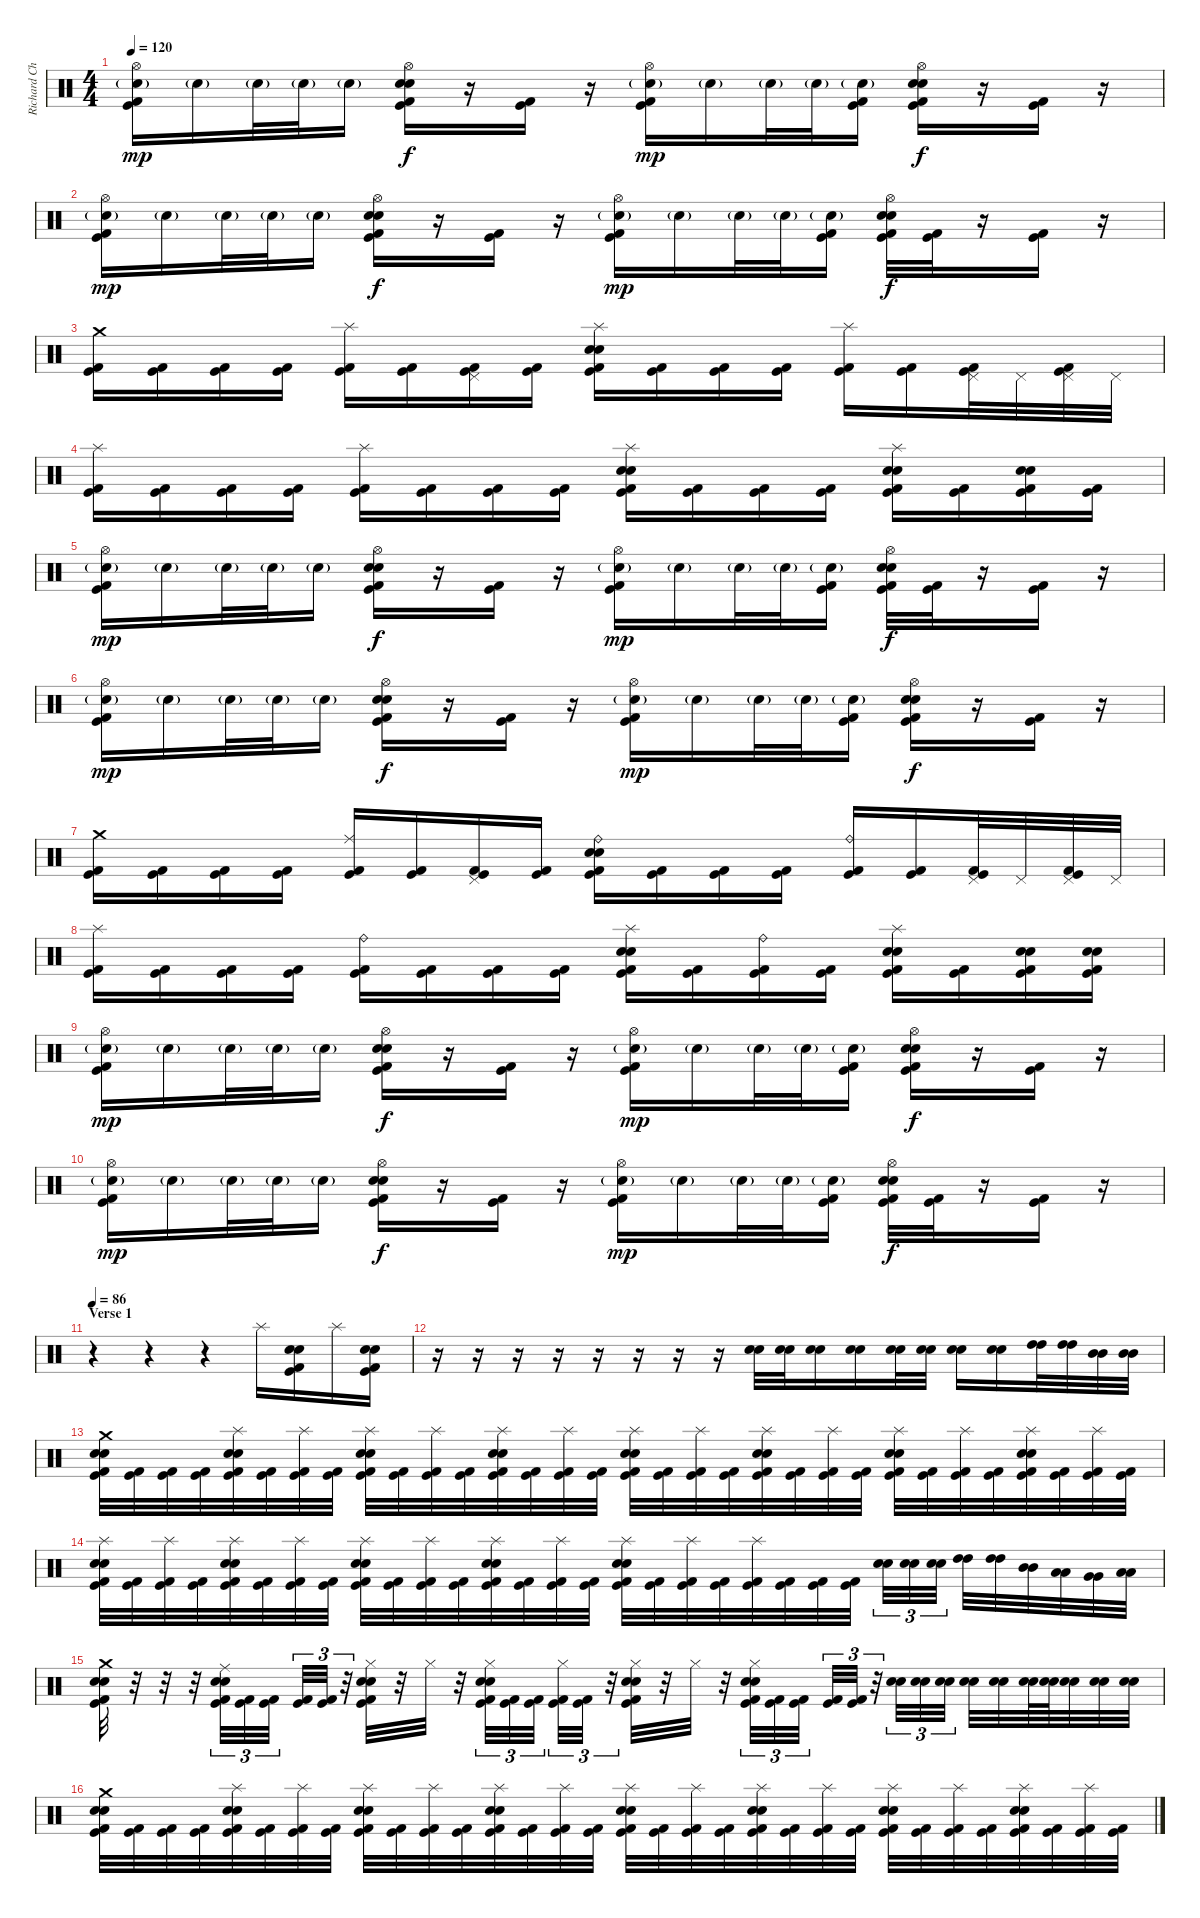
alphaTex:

\track ("Richard Christy" "Richard Ch") {instrument percussion}
\staff {score}
\articulation defaults
\ts (4 4)
\tempo 120
\clef neutral
\ks c
("Hi-Hat (open)" "Snare (hit) 2"{g} "Kick (hit)" "Kick (hit) 2").16{dy mp} "Snare (hit) 2"{g}.16 "Snare (hit) 2"{g}.32 "Snare (hit) 2"{g}.32 "Snare (hit) 2"{g}.16 ("Snare (hit) 2" "Electric Snare (hit)" "Hi-Hat (open)" "Kick (hit)" "Kick (hit) 2").16{dy f} r.16 ("Kick (hit)" "Kick (hit) 2").16 r.16 ("Hi-Hat (open)" "Snare (hit) 2"{g} "Kick (hit)" "Kick (hit) 2").16{dy mp} "Snare (hit) 2"{g}.16 "Snare (hit) 2"{g}.32 "Snare (hit) 2"{g}.32 ("Snare (hit) 2"{g} "Kick (hit)" "Kick (hit) 2").16 ("Hi-Hat (open)" "Snare (hit) 2" "Electric Snare (hit)" "Kick (hit)" "Kick (hit) 2").16{dy f} r.16 ("Kick (hit)" "Kick (hit) 2").16 r.16 |
("Hi-Hat (open)" "Snare (hit) 2"{g} "Kick (hit)" "Kick (hit) 2").16{dy mp} "Snare (hit) 2"{g}.16 "Snare (hit) 2"{g}.32 "Snare (hit) 2"{g}.32 "Snare (hit) 2"{g}.16 ("Snare (hit) 2" "Electric Snare (hit)" "Hi-Hat (open)" "Kick (hit)" "Kick (hit) 2").16{dy f} r.16 ("Kick (hit)" "Kick (hit) 2").16 r.16 ("Hi-Hat (open)" "Snare (hit) 2"{g} "Kick (hit)" "Kick (hit) 2").16{dy mp} "Snare (hit) 2"{g}.16 "Snare (hit) 2"{g}.32 "Snare (hit) 2"{g}.32 ("Snare (hit) 2"{g} "Kick (hit)" "Kick (hit) 2").16 ("Hi-Hat (open)" "Snare (hit) 2" "Electric Snare (hit)" "Kick (hit)" "Kick (hit) 2").32{dy f} ("Kick (hit)" "Kick (hit) 2").32 r.16 ("Kick (hit)" "Kick (hit) 2").16 r.16 |
("Crash medium (hit)" "Kick (hit)" "Kick (hit) 2").16 ("Kick (hit)" "Kick (hit) 2").16 ("Kick (hit)" "Kick (hit) 2").16 ("Kick (hit)" "Kick (hit) 2").16 ("Splash (hit)" "Kick (hit)" "Kick (hit) 2").16 ("Kick (hit)" "Kick (hit) 2").16 ("Pedal Hi-Hat (hit)" "Kick (hit)" "Kick (hit) 2").16 ("Kick (hit)" "Kick (hit) 2").16 ("Splash (hit)" "Snare (hit) 2" "Electric Snare (hit)" "Kick (hit)" "Kick (hit) 2").16 ("Kick (hit)" "Kick (hit) 2").16 ("Kick (hit)" "Kick (hit) 2").16 ("Kick (hit)" "Kick (hit) 2").16 ("Splash (hit)" "Kick (hit)" "Kick (hit) 2").16 ("Kick (hit)" "Kick (hit) 2").16 ("Pedal Hi-Hat (hit)" "Kick (hit)" "Kick (hit) 2").32 "Pedal Hi-Hat (hit)".32 ("Pedal Hi-Hat (hit)" "Kick (hit)" "Kick (hit) 2").32 "Pedal Hi-Hat (hit)".32 |
("Splash (hit)" "Kick (hit)" "Kick (hit) 2").16 ("Kick (hit)" "Kick (hit) 2").16 ("Kick (hit)" "Kick (hit) 2").16 ("Kick (hit)" "Kick (hit) 2").16 ("Splash (hit)" "Kick (hit)" "Kick (hit) 2").16 ("Kick (hit)" "Kick (hit) 2").16 ("Kick (hit)" "Kick (hit) 2").16 ("Kick (hit)" "Kick (hit) 2").16 ("Splash (hit)" "Snare (hit) 2" "Electric Snare (hit)" "Kick (hit)" "Kick (hit) 2").16 ("Kick (hit)" "Kick (hit) 2").16 ("Kick (hit)" "Kick (hit) 2").16 ("Kick (hit)" "Kick (hit) 2").16 ("Splash (hit)" "Snare (hit) 2" "Electric Snare (hit)" "Kick (hit)" "Kick (hit) 2").16 ("Kick (hit)" "Kick (hit) 2").16 ("Snare (hit) 2" "Electric Snare (hit)" "Kick (hit)" "Kick (hit) 2").16 ("Kick (hit)" "Kick (hit) 2").16 |
("Hi-Hat (open)" "Snare (hit) 2"{g} "Kick (hit)" "Kick (hit) 2").16{dy mp} "Snare (hit) 2"{g}.16 "Snare (hit) 2"{g}.32 "Snare (hit) 2"{g}.32 "Snare (hit) 2"{g}.16 ("Snare (hit) 2" "Electric Snare (hit)" "Hi-Hat (open)" "Kick (hit)" "Kick (hit) 2").16{dy f} r.16 ("Kick (hit)" "Kick (hit) 2").16 r.16 ("Hi-Hat (open)" "Snare (hit) 2"{g} "Kick (hit)" "Kick (hit) 2").16{dy mp} "Snare (hit) 2"{g}.16 "Snare (hit) 2"{g}.32 "Snare (hit) 2"{g}.32 ("Snare (hit) 2"{g} "Kick (hit)" "Kick (hit) 2").16 ("Hi-Hat (open)" "Snare (hit) 2" "Electric Snare (hit)" "Kick (hit)" "Kick (hit) 2").32{dy f} ("Kick (hit)" "Kick (hit) 2").32 r.16 ("Kick (hit)" "Kick (hit) 2").16 r.16 |
("Hi-Hat (open)" "Snare (hit) 2"{g} "Kick (hit)" "Kick (hit) 2").16{dy mp} "Snare (hit) 2"{g}.16 "Snare (hit) 2"{g}.32 "Snare (hit) 2"{g}.32 "Snare (hit) 2"{g}.16 ("Snare (hit) 2" "Electric Snare (hit)" "Hi-Hat (open)" "Kick (hit)" "Kick (hit) 2").16{dy f} r.16 ("Kick (hit)" "Kick (hit) 2").16 r.16 ("Hi-Hat (open)" "Snare (hit) 2"{g} "Kick (hit)" "Kick (hit) 2").16{dy mp} "Snare (hit) 2"{g}.16 "Snare (hit) 2"{g}.32 "Snare (hit) 2"{g}.32 ("Snare (hit) 2"{g} "Kick (hit)" "Kick (hit) 2").16 ("Hi-Hat (open)" "Snare (hit) 2" "Electric Snare (hit)" "Kick (hit)" "Kick (hit) 2").16{dy f} r.16 ("Kick (hit)" "Kick (hit) 2").16 r.16 |
("Crash medium (hit)" "Kick (hit)" "Kick (hit) 2").16 ("Kick (hit)" "Kick (hit) 2").16 ("Kick (hit)" "Kick (hit) 2").16 ("Kick (hit)" "Kick (hit) 2").16 ("Ride (middle)" "Kick (hit)" "Kick (hit) 2").16 ("Kick (hit)" "Kick (hit) 2").16 ("Pedal Hi-Hat (hit)" "Kick (hit)" "Kick (hit) 2").16 ("Kick (hit)" "Kick (hit) 2").16 ("Ride (bell)" "Snare (hit) 2" "Electric Snare (hit)" "Kick (hit)" "Kick (hit) 2").16 ("Kick (hit)" "Kick (hit) 2").16 ("Kick (hit)" "Kick (hit) 2").16 ("Kick (hit)" "Kick (hit) 2").16 ("Ride (bell)" "Kick (hit)" "Kick (hit) 2").16 ("Kick (hit)" "Kick (hit) 2").16 ("Pedal Hi-Hat (hit)" "Kick (hit)" "Kick (hit) 2").32 "Pedal Hi-Hat (hit)".32 ("Pedal Hi-Hat (hit)" "Kick (hit)" "Kick (hit) 2").32 "Pedal Hi-Hat (hit)".32 |
("Splash (hit)" "Kick (hit)" "Kick (hit) 2").16 ("Kick (hit)" "Kick (hit) 2").16 ("Kick (hit)" "Kick (hit) 2").16 ("Kick (hit)" "Kick (hit) 2").16 ("Ride (bell)" "Kick (hit)" "Kick (hit) 2").16 ("Kick (hit)" "Kick (hit) 2").16 ("Kick (hit)" "Kick (hit) 2").16 ("Kick (hit)" "Kick (hit) 2").16 ("Splash (hit)" "Snare (hit) 2" "Electric Snare (hit)" "Kick (hit)" "Kick (hit) 2").16 ("Kick (hit)" "Kick (hit) 2").16 ("Ride (bell)" "Kick (hit)" "Kick (hit) 2").16 ("Kick (hit)" "Kick (hit) 2").16 ("Splash (hit)" "Snare (hit) 2" "Electric Snare (hit)" "Kick (hit)" "Kick (hit) 2").16 ("Kick (hit)" "Kick (hit) 2").16 ("Snare (hit) 2" "Electric Snare (hit)" "Kick (hit)" "Kick (hit) 2").16 ("Snare (hit) 2" "Electric Snare (hit)" "Kick (hit)" "Kick (hit) 2").16 |
("Hi-Hat (open)" "Snare (hit) 2"{g} "Kick (hit)" "Kick (hit) 2").16{dy mp} "Snare (hit) 2"{g}.16 "Snare (hit) 2"{g}.32 "Snare (hit) 2"{g}.32 "Snare (hit) 2"{g}.16 ("Snare (hit) 2" "Electric Snare (hit)" "Hi-Hat (open)" "Kick (hit)" "Kick (hit) 2").16{dy f} r.16 ("Kick (hit)" "Kick (hit) 2").16 r.16 ("Hi-Hat (open)" "Snare (hit) 2"{g} "Kick (hit)" "Kick (hit) 2").16{dy mp} "Snare (hit) 2"{g}.16 "Snare (hit) 2"{g}.32 "Snare (hit) 2"{g}.32 ("Snare (hit) 2"{g} "Kick (hit)" "Kick (hit) 2").16 ("Hi-Hat (open)" "Snare (hit) 2" "Electric Snare (hit)" "Kick (hit)" "Kick (hit) 2").16{dy f} r.16 ("Kick (hit)" "Kick (hit) 2").16 r.16 |
("Hi-Hat (open)" "Snare (hit) 2"{g} "Kick (hit)" "Kick (hit) 2").16{dy mp} "Snare (hit) 2"{g}.16 "Snare (hit) 2"{g}.32 "Snare (hit) 2"{g}.32 "Snare (hit) 2"{g}.16 ("Snare (hit) 2" "Electric Snare (hit)" "Hi-Hat (open)" "Kick (hit)" "Kick (hit) 2").16{dy f} r.16 ("Kick (hit)" "Kick (hit) 2").16 r.16 ("Hi-Hat (open)" "Snare (hit) 2"{g} "Kick (hit)" "Kick (hit) 2").16{dy mp} "Snare (hit) 2"{g}.16 "Snare (hit) 2"{g}.32 "Snare (hit) 2"{g}.32 ("Snare (hit) 2"{g} "Kick (hit)" "Kick (hit) 2").16 ("Hi-Hat (open)" "Snare (hit) 2" "Electric Snare (hit)" "Kick (hit)" "Kick (hit) 2").32{dy f} ("Kick (hit)" "Kick (hit) 2").32 r.16 ("Kick (hit)" "Kick (hit) 2").16 r.16 |
\section ("" "Verse 1")
\tempo 86
r.4 r.4 r.4 "Splash (hit)".16 ("Kick (hit)" "Snare (hit) 2" "Electric Snare (hit)" "Kick (hit) 2").16 "Splash (hit)".16 ("Kick (hit)" "Kick (hit) 2" "Electric Snare (hit)" "Snare (hit) 2").16 |
r.16 r.16 r.16 r.16 r.16 r.16 r.16 r.16 ("Snare (hit) 2" "Electric Snare (hit)").32 ("Snare (hit) 2" "Electric Snare (hit)").32 ("Snare (hit) 2" "Electric Snare (hit)").16 ("Snare (hit) 2" "Electric Snare (hit)").16 ("Snare (hit) 2" "Electric Snare (hit)").32 ("Snare (hit) 2" "Electric Snare (hit)").32 ("Snare (hit) 2" "Electric Snare (hit)").16 ("Snare (hit) 2" "Electric Snare (hit)").16 ("High Tom (hit)" "High Tom (hit)").32 ("High Tom (hit)" "High Tom (hit)").32 ("Mid Tom (hit)" "Mid Tom (hit)").32 ("Mid Tom (hit)" "Mid Tom (hit)").32 |
("Crash medium (hit)" "Electric Snare (hit)" "Snare (hit) 2" "Kick (hit)" "Kick (hit) 2").32 ("Kick (hit)" "Kick (hit) 2").32 ("Kick (hit)" "Kick (hit) 2").32 ("Kick (hit)" "Kick (hit) 2").32 ("Splash (hit)" "Electric Snare (hit)" "Snare (hit) 2" "Kick (hit)" "Kick (hit) 2").32 ("Kick (hit)" "Kick (hit) 2").32 ("Splash (hit)" "Kick (hit)" "Kick (hit) 2").32 ("Kick (hit)" "Kick (hit) 2").32 ("Splash (hit)" "Electric Snare (hit)" "Snare (hit) 2" "Kick (hit)" "Kick (hit) 2").32 ("Kick (hit)" "Kick (hit) 2").32 ("Splash (hit)" "Kick (hit)" "Kick (hit) 2").32 ("Kick (hit)" "Kick (hit) 2").32 ("Splash (hit)" "Electric Snare (hit)" "Snare (hit) 2" "Kick (hit)" "Kick (hit) 2").32 ("Kick (hit)" "Kick (hit) 2").32 ("Splash (hit)" "Kick (hit)" "Kick (hit) 2").32 ("Kick (hit)" "Kick (hit) 2").32 ("Splash (hit)" "Electric Snare (hit)" "Snare (hit) 2" "Kick (hit)" "Kick (hit) 2").32 ("Kick (hit)" "Kick (hit) 2").32 ("Splash (hit)" "Kick (hit)" "Kick (hit) 2").32 ("Kick (hit)" "Kick (hit) 2").32 ("Splash (hit)" "Electric Snare (hit)" "Snare (hit) 2" "Kick (hit)" "Kick (hit) 2").32 ("Kick (hit)" "Kick (hit) 2").32 ("Splash (hit)" "Kick (hit)" "Kick (hit) 2").32 ("Kick (hit)" "Kick (hit) 2").32 ("Splash (hit)" "Electric Snare (hit)" "Snare (hit) 2" "Kick (hit)" "Kick (hit) 2").32 ("Kick (hit)" "Kick (hit) 2").32 ("Splash (hit)" "Kick (hit)" "Kick (hit) 2").32 ("Kick (hit)" "Kick (hit) 2").32 ("Splash (hit)" "Electric Snare (hit)" "Snare (hit) 2" "Kick (hit)" "Kick (hit) 2").32 ("Kick (hit)" "Kick (hit) 2").32 ("Splash (hit)" "Kick (hit)" "Kick (hit) 2").32 ("Kick (hit)" "Kick (hit) 2").32 |
("Splash (hit)" "Electric Snare (hit)" "Snare (hit) 2" "Kick (hit)" "Kick (hit) 2").32 ("Kick (hit)" "Kick (hit) 2").32 ("Splash (hit)" "Kick (hit)" "Kick (hit) 2").32 ("Kick (hit)" "Kick (hit) 2").32 ("Splash (hit)" "Electric Snare (hit)" "Snare (hit) 2" "Kick (hit)" "Kick (hit) 2").32 ("Kick (hit)" "Kick (hit) 2").32 ("Splash (hit)" "Kick (hit)" "Kick (hit) 2").32 ("Kick (hit)" "Kick (hit) 2").32 ("Splash (hit)" "Electric Snare (hit)" "Snare (hit) 2" "Kick (hit)" "Kick (hit) 2").32 ("Kick (hit)" "Kick (hit) 2").32 ("Splash (hit)" "Kick (hit)" "Kick (hit) 2").32 ("Kick (hit)" "Kick (hit) 2").32 ("Splash (hit)" "Electric Snare (hit)" "Snare (hit) 2" "Kick (hit)" "Kick (hit) 2").32 ("Kick (hit)" "Kick (hit) 2").32 ("Splash (hit)" "Kick (hit)" "Kick (hit) 2").32 ("Kick (hit)" "Kick (hit) 2").32 ("Splash (hit)" "Electric Snare (hit)" "Snare (hit) 2" "Kick (hit)" "Kick (hit) 2").32 ("Kick (hit)" "Kick (hit) 2").32 ("Splash (hit)" "Kick (hit)" "Kick (hit) 2").32 ("Kick (hit)" "Kick (hit) 2").32 ("Splash (hit)" "Kick (hit)" "Kick (hit) 2").32 ("Kick (hit)" "Kick (hit) 2").32 ("Kick (hit)" "Kick (hit) 2").32 ("Kick (hit)" "Kick (hit) 2").32 ("Snare (hit) 2" "Electric Snare (hit)").32{tu (3 2)} ("Snare (hit) 2" "Electric Snare (hit)").32{tu (3 2)} ("Snare (hit) 2" "Electric Snare (hit)").32{tu (3 2)} ("High Tom (hit)" "High Tom (hit)").32 ("High Tom (hit)" "High Tom (hit)").32 ("Mid Tom (hit)" "Mid Tom (hit)").32 ("Low Tom (hit)" "Low Tom (hit)").32 ("Very Low Tom (hit)" "Very Low Tom (hit)").32 ("Low Floor Tom (hit)" "Low Floor Tom (hit)").32 |
("Crash medium (hit)" "Electric Snare (hit)" "Snare (hit) 2" "Kick (hit) 2" "Kick (hit)").32 r.32 r.32 r.32 ("Ride (middle)" "Electric Snare (hit)" "Snare (hit) 2" "Kick (hit) 2" "Kick (hit)").32{tu (3 2)} ("Kick (hit) 2" "Kick (hit)").32{tu (3 2)} ("Kick (hit) 2" "Kick (hit)").32{tu (3 2)} ("Kick (hit) 2" "Kick (hit)").32{tu (3 2)} ("Kick (hit) 2" "Kick (hit)").32{tu (3 2)} r.32{tu (3 2)} ("Hi-Hat (closed)" "Electric Snare (hit)" "Snare (hit) 2" "Kick (hit)" "Kick (hit) 2").32 r.32 "Hi-Hat (closed)".32 r.32 ("Hi-Hat (closed)" "Electric Snare (hit)" "Snare (hit) 2" "Kick (hit) 2" "Kick (hit)").32{tu (3 2)} ("Kick (hit) 2" "Kick (hit)").32{tu (3 2)} ("Kick (hit) 2" "Kick (hit)").32{tu (3 2)} ("Hi-Hat (closed)" "Kick (hit) 2" "Kick (hit)").32{tu (3 2)} ("Kick (hit) 2" "Kick (hit)").32{tu (3 2)} r.32{tu (3 2)} ("Hi-Hat (closed)" "Electric Snare (hit)" "Snare (hit) 2" "Kick (hit) 2" "Kick (hit)").32 r.32 "Hi-Hat (closed)".32 r.32 ("Hi-Hat (closed)" "Electric Snare (hit)" "Snare (hit) 2" "Kick (hit)" "Kick (hit) 2").32{tu (3 2)} ("Kick (hit)" "Kick (hit) 2").32{tu (3 2)} ("Kick (hit)" "Kick (hit) 2").32{tu (3 2)} ("Kick (hit)" "Kick (hit) 2").32{tu (3 2)} ("Kick (hit)" "Kick (hit) 2").32{tu (3 2)} r.32{tu (3 2)} ("Electric Snare (hit)" "Snare (hit) 2").32{tu (3 2)} ("Electric Snare (hit)" "Snare (hit) 2").32{tu (3 2)} ("Electric Snare (hit)" "Snare (hit) 2").32{tu (3 2)} ("Electric Snare (hit)" "Snare (hit) 2").32 ("Electric Snare (hit)" "Snare (hit) 2").32 ("Electric Snare (hit)" "Snare (hit) 2").64 ("Electric Snare (hit)" "Snare (hit) 2").64 ("Electric Snare (hit)" "Snare (hit) 2").32 ("Electric Snare (hit)" "Snare (hit) 2").32 ("Electric Snare (hit)" "Snare (hit) 2").32 |
("Crash medium (hit)" "Electric Snare (hit)" "Snare (hit) 2" "Kick (hit)" "Kick (hit) 2").32 ("Kick (hit)" "Kick (hit) 2").32 ("Kick (hit)" "Kick (hit) 2").32 ("Kick (hit)" "Kick (hit) 2").32 ("Splash (hit)" "Electric Snare (hit)" "Snare (hit) 2" "Kick (hit)" "Kick (hit) 2").32 ("Kick (hit)" "Kick (hit) 2").32 ("Splash (hit)" "Kick (hit)" "Kick (hit) 2").32 ("Kick (hit)" "Kick (hit) 2").32 ("Splash (hit)" "Electric Snare (hit)" "Snare (hit) 2" "Kick (hit)" "Kick (hit) 2").32 ("Kick (hit)" "Kick (hit) 2").32 ("Splash (hit)" "Kick (hit)" "Kick (hit) 2").32 ("Kick (hit)" "Kick (hit) 2").32 ("Splash (hit)" "Electric Snare (hit)" "Snare (hit) 2" "Kick (hit)" "Kick (hit) 2").32 ("Kick (hit)" "Kick (hit) 2").32 ("Splash (hit)" "Kick (hit)" "Kick (hit) 2").32 ("Kick (hit)" "Kick (hit) 2").32 ("Splash (hit)" "Electric Snare (hit)" "Snare (hit) 2" "Kick (hit)" "Kick (hit) 2").32 ("Kick (hit)" "Kick (hit) 2").32 ("Splash (hit)" "Kick (hit)" "Kick (hit) 2").32 ("Kick (hit)" "Kick (hit) 2").32 ("Splash (hit)" "Electric Snare (hit)" "Snare (hit) 2" "Kick (hit)" "Kick (hit) 2").32 ("Kick (hit)" "Kick (hit) 2").32 ("Splash (hit)" "Kick (hit)" "Kick (hit) 2").32 ("Kick (hit)" "Kick (hit) 2").32 ("Splash (hit)" "Electric Snare (hit)" "Snare (hit) 2" "Kick (hit)" "Kick (hit) 2").32 ("Kick (hit)" "Kick (hit) 2").32 ("Splash (hit)" "Kick (hit)" "Kick (hit) 2").32 ("Kick (hit)" "Kick (hit) 2").32 ("Splash (hit)" "Electric Snare (hit)" "Snare (hit) 2" "Kick (hit)" "Kick (hit) 2").32 ("Kick (hit)" "Kick (hit) 2").32 ("Splash (hit)" "Kick (hit)" "Kick (hit) 2").32 ("Kick (hit)" "Kick (hit) 2").32
